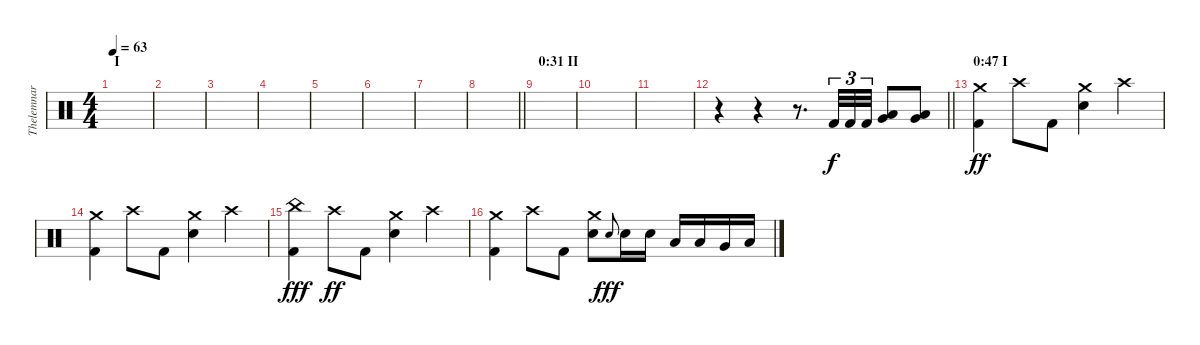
\track ("Thelemnar (Drums)" "Thelemnar ") {instrument percussion}
\staff {score}
\articulation defaults
\ts (4 4)
\section ("" "I")
\tempo 63
\clef neutral
\ks c
|
|
|
|
|
|
|
\barLineRight lightlight
|
\section ("" "0:31 II ")
|
|
|
\barLineRight lightlight
r.4 r.4 r.8{d} "Kick (hit) 2".32{tu (3 2)} "Kick (hit) 2".32{tu (3 2)} "Kick (hit) 2".32{tu (3 2)} ("Very Low Tom (hit)" "Low Tom (hit)").8 ("Very Low Tom (hit)" "Low Tom (hit)").8 |
\section ("" "0:47 I")
("Kick (hit) 2" "Crash medium (hit)").4{dy ff} "Crash high (hit)".8 "Kick (hit) 2".8 ("Electric Snare (hit)" "Crash medium (hit)").4 "Crash high (hit)".4 |
("Kick (hit) 2" "Crash medium (hit)").4 "Crash high (hit)".8 "Kick (hit) 2".8 ("Electric Snare (hit)" "Crash medium (hit)").4 "Crash high (hit)".4 |
("Kick (hit) 2" "China (hit)").4{dy fff} "Crash high (hit)".8{dy ff} "Kick (hit) 2".8 ("Electric Snare (hit)" "Crash medium (hit)").4 "Crash high (hit)".4 |
("Kick (hit) 2" "Crash medium (hit)").4 "Crash high (hit)".8 "Kick (hit) 2".8 ("Electric Snare (hit)" "Crash medium (hit)").8 "Electric Snare (hit)".8{gr onbeat dy fff} "Electric Snare (hit)".16 "Electric Snare (hit)".16 "Low Tom (hit)".16 "Low Tom (hit)".16 "Very Low Tom (hit)".16 "Low Floor Tom (hit)".16
